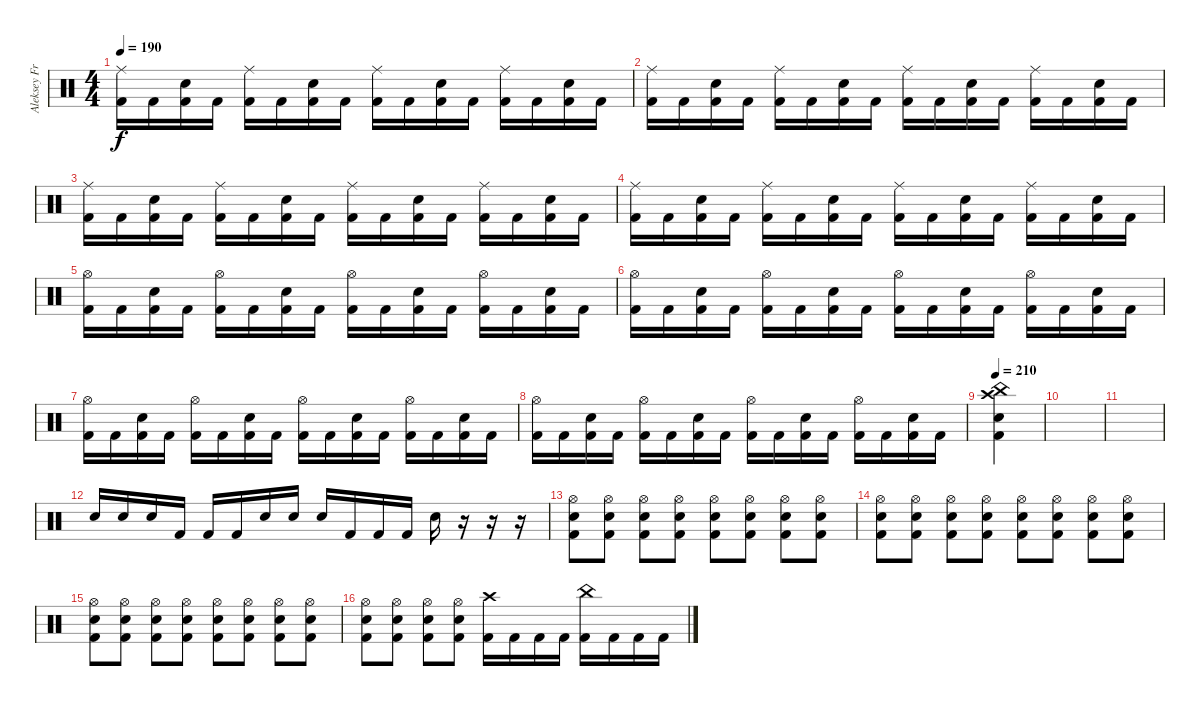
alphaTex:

\track ("Aleksey Frolov" "Aleksey Fr") {instrument percussion}
\staff {score}
\articulation defaults
\ts (4 4)
\tempo 190
\clef neutral
\ks c
("Kick (hit) 2" "Ride (middle)").16{dy f} "Kick (hit) 2".16 ("Kick (hit) 2" "Electric Snare (hit)").16 "Kick (hit) 2".16 ("Kick (hit) 2" "Ride (middle)").16 "Kick (hit) 2".16 ("Kick (hit) 2" "Electric Snare (hit)").16 "Kick (hit) 2".16 ("Kick (hit) 2" "Ride (middle)").16 "Kick (hit) 2".16 ("Kick (hit) 2" "Electric Snare (hit)").16 "Kick (hit) 2".16 ("Kick (hit) 2" "Ride (middle)").16 "Kick (hit) 2".16 ("Kick (hit) 2" "Electric Snare (hit)").16 "Kick (hit) 2".16 |
("Kick (hit) 2" "Ride (middle)").16 "Kick (hit) 2".16 ("Kick (hit) 2" "Electric Snare (hit)").16 "Kick (hit) 2".16 ("Kick (hit) 2" "Ride (middle)").16 "Kick (hit) 2".16 ("Kick (hit) 2" "Electric Snare (hit)").16 "Kick (hit) 2".16 ("Kick (hit) 2" "Ride (middle)").16 "Kick (hit) 2".16 ("Kick (hit) 2" "Electric Snare (hit)").16 "Kick (hit) 2".16 ("Kick (hit) 2" "Ride (middle)").16 "Kick (hit) 2".16 ("Kick (hit) 2" "Electric Snare (hit)").16 "Kick (hit) 2".16 |
("Kick (hit) 2" "Ride (middle)").16 "Kick (hit) 2".16 ("Kick (hit) 2" "Electric Snare (hit)").16 "Kick (hit) 2".16 ("Kick (hit) 2" "Ride (middle)").16 "Kick (hit) 2".16 ("Kick (hit) 2" "Electric Snare (hit)").16 "Kick (hit) 2".16 ("Kick (hit) 2" "Ride (middle)").16 "Kick (hit) 2".16 ("Kick (hit) 2" "Electric Snare (hit)").16 "Kick (hit) 2".16 ("Kick (hit) 2" "Ride (middle)").16 "Kick (hit) 2".16 ("Kick (hit) 2" "Electric Snare (hit)").16 "Kick (hit) 2".16 |
("Kick (hit) 2" "Ride (middle)").16 "Kick (hit) 2".16 ("Kick (hit) 2" "Electric Snare (hit)").16 "Kick (hit) 2".16 ("Kick (hit) 2" "Ride (middle)").16 "Kick (hit) 2".16 ("Kick (hit) 2" "Electric Snare (hit)").16 "Kick (hit) 2".16 ("Kick (hit) 2" "Ride (middle)").16 "Kick (hit) 2".16 ("Kick (hit) 2" "Electric Snare (hit)").16 "Kick (hit) 2".16 ("Kick (hit) 2" "Ride (middle)").16 "Kick (hit) 2".16 ("Kick (hit) 2" "Electric Snare (hit)").16 "Kick (hit) 2".16 |
("Kick (hit) 2" "Hi-Hat (open)").16 "Kick (hit) 2".16 ("Kick (hit) 2" "Electric Snare (hit)").16 "Kick (hit) 2".16 ("Kick (hit) 2" "Hi-Hat (open)").16 "Kick (hit) 2".16 ("Kick (hit) 2" "Electric Snare (hit)").16 "Kick (hit) 2".16 ("Kick (hit) 2" "Hi-Hat (open)").16 "Kick (hit) 2".16 ("Kick (hit) 2" "Electric Snare (hit)").16 "Kick (hit) 2".16 ("Kick (hit) 2" "Hi-Hat (open)").16 "Kick (hit) 2".16 ("Kick (hit) 2" "Electric Snare (hit)").16 "Kick (hit) 2".16 |
("Kick (hit) 2" "Hi-Hat (open)").16 "Kick (hit) 2".16 ("Kick (hit) 2" "Electric Snare (hit)").16 "Kick (hit) 2".16 ("Kick (hit) 2" "Hi-Hat (open)").16 "Kick (hit) 2".16 ("Kick (hit) 2" "Electric Snare (hit)").16 "Kick (hit) 2".16 ("Kick (hit) 2" "Hi-Hat (open)").16 "Kick (hit) 2".16 ("Kick (hit) 2" "Electric Snare (hit)").16 "Kick (hit) 2".16 ("Kick (hit) 2" "Hi-Hat (open)").16 "Kick (hit) 2".16 ("Kick (hit) 2" "Electric Snare (hit)").16 "Kick (hit) 2".16 |
("Kick (hit) 2" "Hi-Hat (open)").16 "Kick (hit) 2".16 ("Kick (hit) 2" "Electric Snare (hit)").16 "Kick (hit) 2".16 ("Kick (hit) 2" "Hi-Hat (open)").16 "Kick (hit) 2".16 ("Kick (hit) 2" "Electric Snare (hit)").16 "Kick (hit) 2".16 ("Kick (hit) 2" "Hi-Hat (open)").16 "Kick (hit) 2".16 ("Kick (hit) 2" "Electric Snare (hit)").16 "Kick (hit) 2".16 ("Kick (hit) 2" "Hi-Hat (open)").16 "Kick (hit) 2".16 ("Kick (hit) 2" "Electric Snare (hit)").16 "Kick (hit) 2".16 |
("Kick (hit) 2" "Hi-Hat (open)").16 "Kick (hit) 2".16 ("Kick (hit) 2" "Electric Snare (hit)").16 "Kick (hit) 2".16 ("Kick (hit) 2" "Hi-Hat (open)").16 "Kick (hit) 2".16 ("Kick (hit) 2" "Electric Snare (hit)").16 "Kick (hit) 2".16 ("Kick (hit) 2" "Hi-Hat (open)").16 "Kick (hit) 2".16 ("Kick (hit) 2" "Electric Snare (hit)").16 "Kick (hit) 2".16 ("Kick (hit) 2" "Hi-Hat (open)").16 "Kick (hit) 2".16 ("Kick (hit) 2" "Electric Snare (hit)").16 "Kick (hit) 2".16 |
\tempo 210
("Electric Snare (hit)" "Crash high (hit)" "China (hit)" "Kick (hit) 2").4 |
|
|
"Electric Snare (hit)".16 "Electric Snare (hit)".16 "Electric Snare (hit)".16 "Kick (hit) 2".16 "Kick (hit) 2".16 "Kick (hit) 2".16 "Electric Snare (hit)".16 "Electric Snare (hit)".16 "Electric Snare (hit)".16 "Kick (hit) 2".16 "Kick (hit) 2".16 "Kick (hit) 2".16 "Electric Snare (hit)".16 r.16 r.16 r.16 |
("Kick (hit) 2" "Electric Snare (hit)" "Hi-Hat (open)").8 ("Kick (hit) 2" "Electric Snare (hit)" "Hi-Hat (open)").8 ("Kick (hit) 2" "Electric Snare (hit)" "Hi-Hat (open)").8 ("Kick (hit) 2" "Electric Snare (hit)" "Hi-Hat (open)").8 ("Kick (hit) 2" "Electric Snare (hit)" "Hi-Hat (open)").8 ("Kick (hit) 2" "Electric Snare (hit)" "Hi-Hat (open)").8 ("Kick (hit) 2" "Electric Snare (hit)" "Hi-Hat (open)").8 ("Kick (hit) 2" "Electric Snare (hit)" "Hi-Hat (open)").8 |
("Kick (hit) 2" "Electric Snare (hit)" "Hi-Hat (open)").8 ("Kick (hit) 2" "Electric Snare (hit)" "Hi-Hat (open)").8 ("Kick (hit) 2" "Electric Snare (hit)" "Hi-Hat (open)").8 ("Kick (hit) 2" "Electric Snare (hit)" "Hi-Hat (open)").8 ("Kick (hit) 2" "Electric Snare (hit)" "Hi-Hat (open)").8 ("Kick (hit) 2" "Electric Snare (hit)" "Hi-Hat (open)").8 ("Kick (hit) 2" "Electric Snare (hit)" "Hi-Hat (open)").8 ("Kick (hit) 2" "Electric Snare (hit)" "Hi-Hat (open)").8 |
("Kick (hit) 2" "Electric Snare (hit)" "Hi-Hat (open)").8 ("Kick (hit) 2" "Electric Snare (hit)" "Hi-Hat (open)").8 ("Kick (hit) 2" "Electric Snare (hit)" "Hi-Hat (open)").8 ("Kick (hit) 2" "Electric Snare (hit)" "Hi-Hat (open)").8 ("Kick (hit) 2" "Electric Snare (hit)" "Hi-Hat (open)").8 ("Kick (hit) 2" "Electric Snare (hit)" "Hi-Hat (open)").8 ("Kick (hit) 2" "Electric Snare (hit)" "Hi-Hat (open)").8 ("Kick (hit) 2" "Electric Snare (hit)" "Hi-Hat (open)").8 |
("Kick (hit) 2" "Electric Snare (hit)" "Hi-Hat (open)").8 ("Kick (hit) 2" "Electric Snare (hit)" "Hi-Hat (open)").8 ("Kick (hit) 2" "Electric Snare (hit)" "Hi-Hat (open)").8 ("Kick (hit) 2" "Electric Snare (hit)" "Hi-Hat (open)").8 ("Kick (hit) 2" "Crash high (hit)").16 "Kick (hit) 2".16 "Kick (hit) 2".16 "Kick (hit) 2".16 ("Kick (hit) 2" "China (hit)").16 "Kick (hit) 2".16 "Kick (hit) 2".16 "Kick (hit) 2".16
